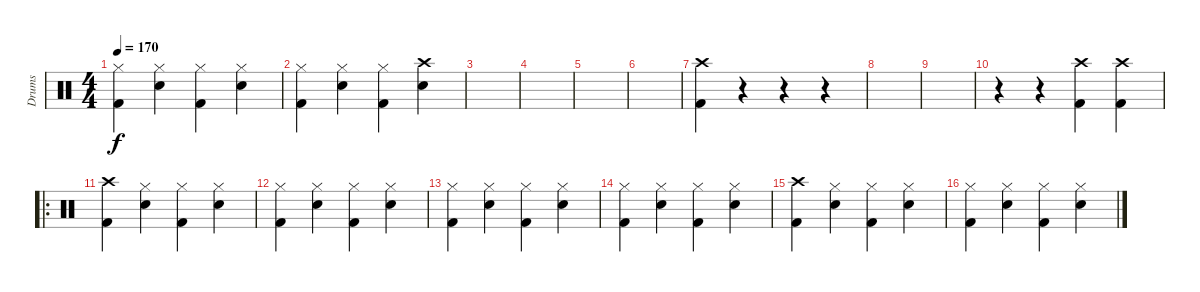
\track ("Drums" "Drums") {instrument percussion}
\staff {score}
\articulation defaults
\ts (4 4)
\tempo 170
\clef neutral
\ks c
("Hi-Hat (closed)" "Kick (hit) 2").4{dy f} ("Hi-Hat (closed)" "Snare (hit) 2").4 ("Hi-Hat (closed)" "Kick (hit) 2").4 ("Hi-Hat (closed)" "Snare (hit) 2").4 |
("Hi-Hat (closed)" "Kick (hit) 2").4 ("Hi-Hat (closed)" "Snare (hit) 2").4 ("Hi-Hat (closed)" "Kick (hit) 2").4 ("Crash high (hit)" "Snare (hit) 2").4 |
|
|
|
|
("Crash high (hit)" "Kick (hit) 2").4 r.4 r.4 r.4 |
|
|
r.4 r.4 ("Crash high (hit)" "Kick (hit) 2").4 ("Crash high (hit)" "Kick (hit) 2").4 |
\ro
("Crash high (hit)" "Kick (hit) 2").4 ("Hi-Hat (closed)" "Snare (hit) 2").4 ("Hi-Hat (closed)" "Kick (hit) 2").4 ("Hi-Hat (closed)" "Snare (hit) 2").4 |
("Hi-Hat (closed)" "Kick (hit) 2").4 ("Hi-Hat (closed)" "Snare (hit) 2").4 ("Hi-Hat (closed)" "Kick (hit) 2").4 ("Hi-Hat (closed)" "Snare (hit) 2").4 |
("Hi-Hat (closed)" "Kick (hit) 2").4 ("Hi-Hat (closed)" "Snare (hit) 2").4 ("Hi-Hat (closed)" "Kick (hit) 2").4 ("Hi-Hat (closed)" "Snare (hit) 2").4 |
("Hi-Hat (closed)" "Kick (hit) 2").4 ("Hi-Hat (closed)" "Snare (hit) 2").4 ("Hi-Hat (closed)" "Kick (hit) 2").4 ("Hi-Hat (closed)" "Snare (hit) 2").4 |
("Crash high (hit)" "Kick (hit) 2").4 ("Hi-Hat (closed)" "Snare (hit) 2").4 ("Hi-Hat (closed)" "Kick (hit) 2").4 ("Hi-Hat (closed)" "Snare (hit) 2").4 |
("Hi-Hat (closed)" "Kick (hit) 2").4 ("Hi-Hat (closed)" "Snare (hit) 2").4 ("Hi-Hat (closed)" "Kick (hit) 2").4 ("Hi-Hat (closed)" "Snare (hit) 2").4
